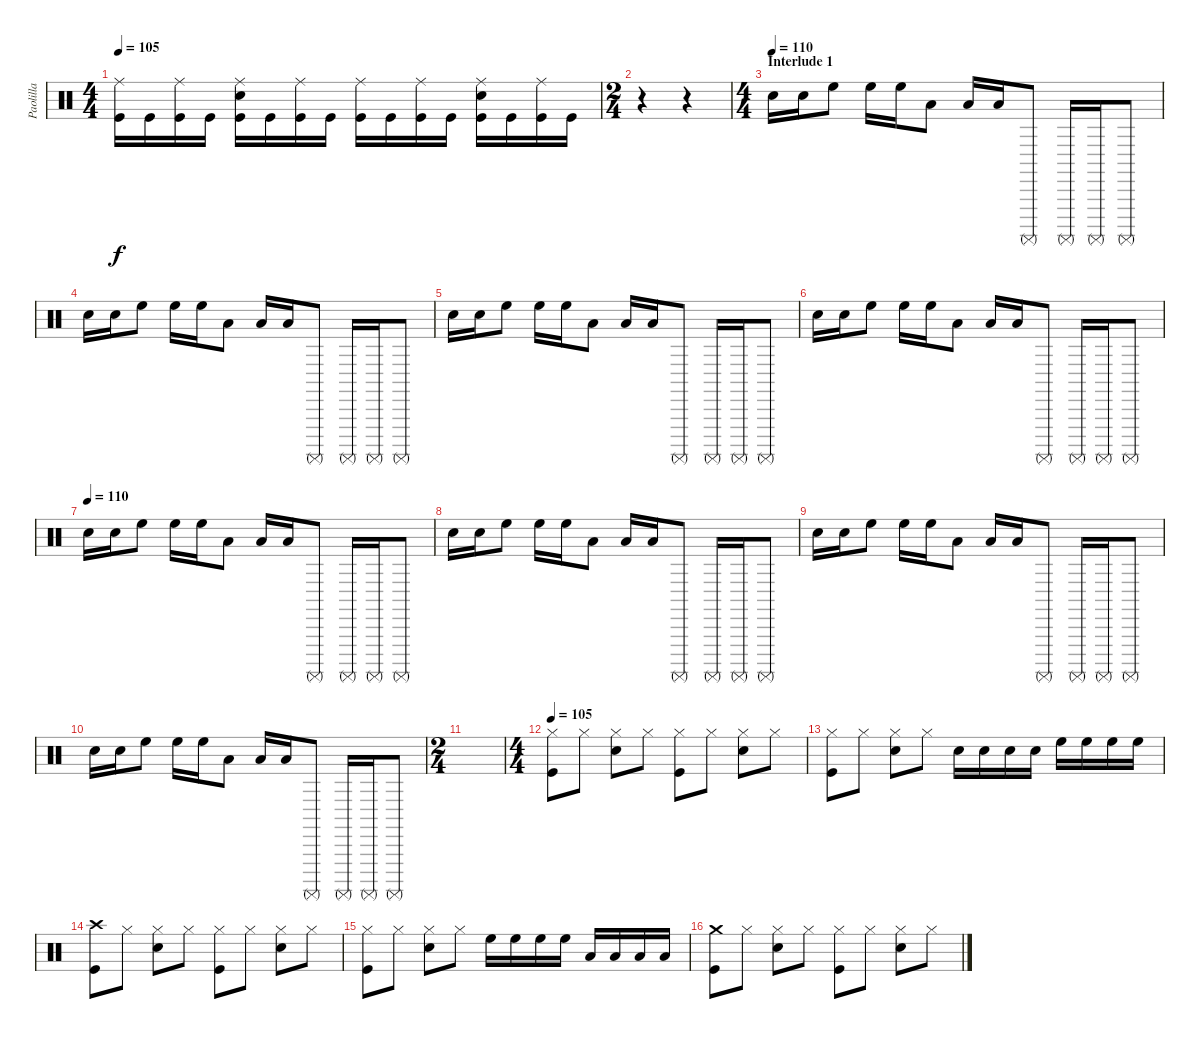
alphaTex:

\track ("Paolilla" "Paolilla") {instrument percussion}
\staff {score}
\articulation defaults
\ts (4 4)
\tempo 105
\clef neutral
\ks c
("Ride (middle)" "Kick (hit)").16{dy f} "Kick (hit)".16 ("Ride (middle)" "Kick (hit)").16 "Kick (hit)".16 ("Ride (middle)" "Snare (hit) 2" "Kick (hit)").16 "Kick (hit)".16 ("Ride (middle)" "Kick (hit)").16 "Kick (hit)".16 ("Ride (middle)" "Kick (hit)").16 "Kick (hit)".16 ("Ride (middle)" "Kick (hit)").16 "Kick (hit)".16 ("Ride (middle)" "Snare (hit) 2" "Kick (hit)").16 "Kick (hit)".16 ("Ride (middle)" "Kick (hit)").16 "Kick (hit)".16 |
\ts (2 4)
r.4 r.4 |
\ts (4 4)
\section ("" "Interlude 1")
\tempo (110)
"Snare (hit) 2".16 "Snare (hit) 2".16 "High Floor Tom (hit)".8 "High Floor Tom (hit)".16 "High Floor Tom (hit)".16 "Low Tom (hit)".8 "Low Tom (hit)".16 "Low Tom (hit)".16 "Surdo (mute)".8 "Surdo (mute)".16 "Surdo (mute)".16 "Surdo (mute)".8 |
"Snare (hit) 2".16 "Snare (hit) 2".16 "High Floor Tom (hit)".8 "High Floor Tom (hit)".16 "High Floor Tom (hit)".16 "Low Tom (hit)".8 "Low Tom (hit)".16 "Low Tom (hit)".16 "Surdo (mute)".8 "Surdo (mute)".16 "Surdo (mute)".16 "Surdo (mute)".8 |
"Snare (hit) 2".16 "Snare (hit) 2".16 "High Floor Tom (hit)".8 "High Floor Tom (hit)".16 "High Floor Tom (hit)".16 "Low Tom (hit)".8 "Low Tom (hit)".16 "Low Tom (hit)".16 "Surdo (mute)".8 "Surdo (mute)".16 "Surdo (mute)".16 "Surdo (mute)".8 |
"Snare (hit) 2".16 "Snare (hit) 2".16 "High Floor Tom (hit)".8 "High Floor Tom (hit)".16 "High Floor Tom (hit)".16 "Low Tom (hit)".8 "Low Tom (hit)".16 "Low Tom (hit)".16 "Surdo (mute)".8 "Surdo (mute)".16 "Surdo (mute)".16 "Surdo (mute)".8 |
\tempo (110)
"Snare (hit) 2".16 "Snare (hit) 2".16 "High Floor Tom (hit)".8 "High Floor Tom (hit)".16 "High Floor Tom (hit)".16 "Low Tom (hit)".8 "Low Tom (hit)".16 "Low Tom (hit)".16 "Surdo (mute)".8 "Surdo (mute)".16 "Surdo (mute)".16 "Surdo (mute)".8 |
"Snare (hit) 2".16 "Snare (hit) 2".16 "High Floor Tom (hit)".8 "High Floor Tom (hit)".16 "High Floor Tom (hit)".16 "Low Tom (hit)".8 "Low Tom (hit)".16 "Low Tom (hit)".16 "Surdo (mute)".8 "Surdo (mute)".16 "Surdo (mute)".16 "Surdo (mute)".8 |
"Snare (hit) 2".16 "Snare (hit) 2".16 "High Floor Tom (hit)".8 "High Floor Tom (hit)".16 "High Floor Tom (hit)".16 "Low Tom (hit)".8 "Low Tom (hit)".16 "Low Tom (hit)".16 "Surdo (mute)".8 "Surdo (mute)".16 "Surdo (mute)".16 "Surdo (mute)".8 |
"Snare (hit) 2".16 "Snare (hit) 2".16 "High Floor Tom (hit)".8 "High Floor Tom (hit)".16 "High Floor Tom (hit)".16 "Low Tom (hit)".8 "Low Tom (hit)".16 "Low Tom (hit)".16 "Surdo (mute)".8 "Surdo (mute)".16 "Surdo (mute)".16 "Surdo (mute)".8 |
\ts (2 4)
|
\ts (4 4)
\tempo 105
("Hi-Hat (closed)" "Kick (hit)").8 "Hi-Hat (closed)".8 ("Hi-Hat (closed)" "Snare (hit) 2").8 "Hi-Hat (closed)".8 ("Hi-Hat (closed)" "Kick (hit)").8 "Hi-Hat (closed)".8 ("Hi-Hat (closed)" "Snare (hit) 2").8 "Hi-Hat (closed)".8 |
("Hi-Hat (closed)" "Kick (hit)").8 "Hi-Hat (closed)".8 ("Hi-Hat (closed)" "Snare (hit) 2").8 "Hi-Hat (closed)".8 "Snare (hit) 2".16 "Snare (hit) 2".16 "Snare (hit) 2".16 "Snare (hit) 2".16 "High Floor Tom (hit)".16 "High Floor Tom (hit)".16 "High Floor Tom (hit)".16 "High Floor Tom (hit)".16 |
("Crash high (hit)" "Kick (hit)").8 "Hi-Hat (closed)".8 ("Hi-Hat (closed)" "Snare (hit) 2").8 "Hi-Hat (closed)".8 ("Hi-Hat (closed)" "Kick (hit)").8 "Hi-Hat (closed)".8 ("Hi-Hat (closed)" "Snare (hit) 2").8 "Hi-Hat (closed)".8 |
("Hi-Hat (closed)" "Kick (hit)").8 "Hi-Hat (closed)".8 ("Hi-Hat (closed)" "Snare (hit) 2").8 "Hi-Hat (closed)".8 "High Floor Tom (hit)".16 "High Floor Tom (hit)".16 "High Floor Tom (hit)".16 "High Floor Tom (hit)".16 "Low Tom (hit)".16 "Low Tom (hit)".16 "Low Tom (hit)".16 "Low Tom (hit)".16 |
("Crash medium (hit)" "Kick (hit)").8 "Hi-Hat (closed)".8 ("Hi-Hat (closed)" "Snare (hit) 2").8 "Hi-Hat (closed)".8 ("Hi-Hat (closed)" "Kick (hit)").8 "Hi-Hat (closed)".8 ("Hi-Hat (closed)" "Snare (hit) 2").8 "Hi-Hat (closed)".8
